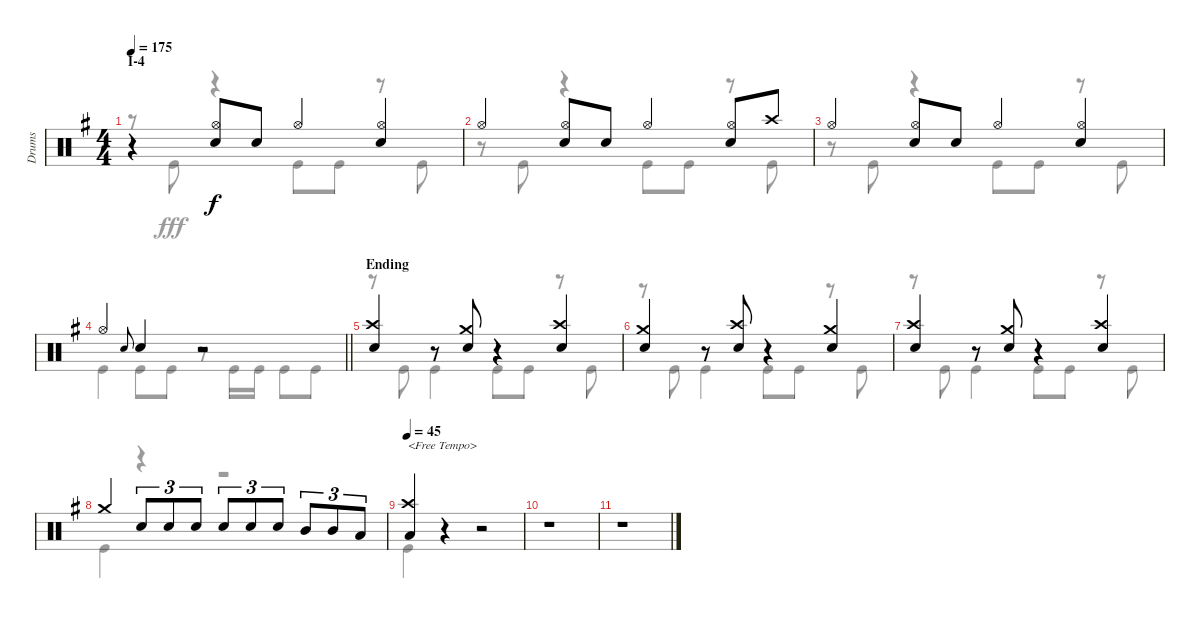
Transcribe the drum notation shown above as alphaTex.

\track ("Drums" "Drums") {instrument percussion}
\staff {score}
\articulation defaults
\voice
\ts (4 4)
\section ("" "I-4")
\tempo 175
\clef neutral
\ks g
r.4{dy f} ("Hi-Hat (open)" "Snare (hit) 2").8 "Snare (hit) 2".8 "Hi-Hat (open)".4 ("Hi-Hat (open)" "Snare (hit) 2").4 |
"Hi-Hat (open)".4 ("Hi-Hat (open)" "Snare (hit) 2").8 "Snare (hit) 2".8 "Hi-Hat (open)".4 ("Hi-Hat (open)" "Snare (hit) 2").8 "Crash high (hit)".8 |
"Hi-Hat (open)".4 ("Hi-Hat (open)" "Snare (hit) 2").8 "Snare (hit) 2".8 "Hi-Hat (open)".4 ("Hi-Hat (open)" "Snare (hit) 2").4 |
\barLineRight lightlight "Hi-Hat (open)".4 "Snare (hit) 2".8{gr onbeat} "Snare (hit) 2".4
r.2 |
\section ("" "Ending")
("Crash high (hit)" "Snare (hit) 2").4 r.8 ("Crash medium (hit)" "Snare (hit) 2").8 r.4 ("Crash high (hit)" "Snare (hit) 2").4 |
("Crash medium (hit)" "Snare (hit) 2").4 r.8 ("Crash high (hit)" "Snare (hit) 2").8 r.4 ("Crash medium (hit)" "Snare (hit) 2").4 |
("Crash high (hit)" "Snare (hit) 2").4 r.8 ("Crash medium (hit)" "Snare (hit) 2").8 r.4 ("Crash high (hit)" "Snare (hit) 2").4 |
"Crash medium (hit)".4 "Snare (hit) 2".8{tu (3 2)} "Snare (hit) 2".8{tu (3 2)} "Snare (hit) 2".8{tu (3 2)} "Snare (hit) 2".8{tu (3 2)} "Snare (hit) 2".8{tu (3 2)} "Snare (hit) 2".8{tu (3 2)} "Mid Tom (hit)".8{tu (3 2)} "Mid Tom (hit)".8{tu (3 2)} "Low Tom (hit)".8{tu (3 2)} |
\tempo 45
("Crash high (hit)" "Low Tom (hit)").4{txt "<Free Tempo>"} r.4 r.2 |
r.1 |
r.1
\voice
\clef neutral
\ottava regular
\simile none
\ks g
r.8{dy fff} "Kick (hit)".8 r.4 "Kick (hit)".8 "Kick (hit)".8 r.8 "Kick (hit)".8 |
r.8 "Kick (hit)".8 r.4 "Kick (hit)".8 "Kick (hit)".8 r.8 "Kick (hit)".8 |
r.8 "Kick (hit)".8 r.4 "Kick (hit)".8 "Kick (hit)".8 r.8 "Kick (hit)".8 |
\barLineRight lightlight "Kick (hit)".4 "Kick (hit)".8 "Kick (hit)".8
r.8 "Kick (hit)".16 "Kick (hit)".16 "Kick (hit)".8 "Kick (hit)".8 |
r.8 "Kick (hit)".8 "Kick (hit)".4 "Kick (hit)".8 "Kick (hit)".8 r.8 "Kick (hit)".8 |
r.8 "Kick (hit)".8 "Kick (hit)".4 "Kick (hit)".8 "Kick (hit)".8 r.8 "Kick (hit)".8 |
r.8 "Kick (hit)".8 "Kick (hit)".4 "Kick (hit)".8 "Kick (hit)".8 r.8 "Kick (hit)".8 |
"Kick (hit)".4 r.4 r.2 |
"Kick (hit)".4 r.4 r.2 |
r.1 |
r.1
